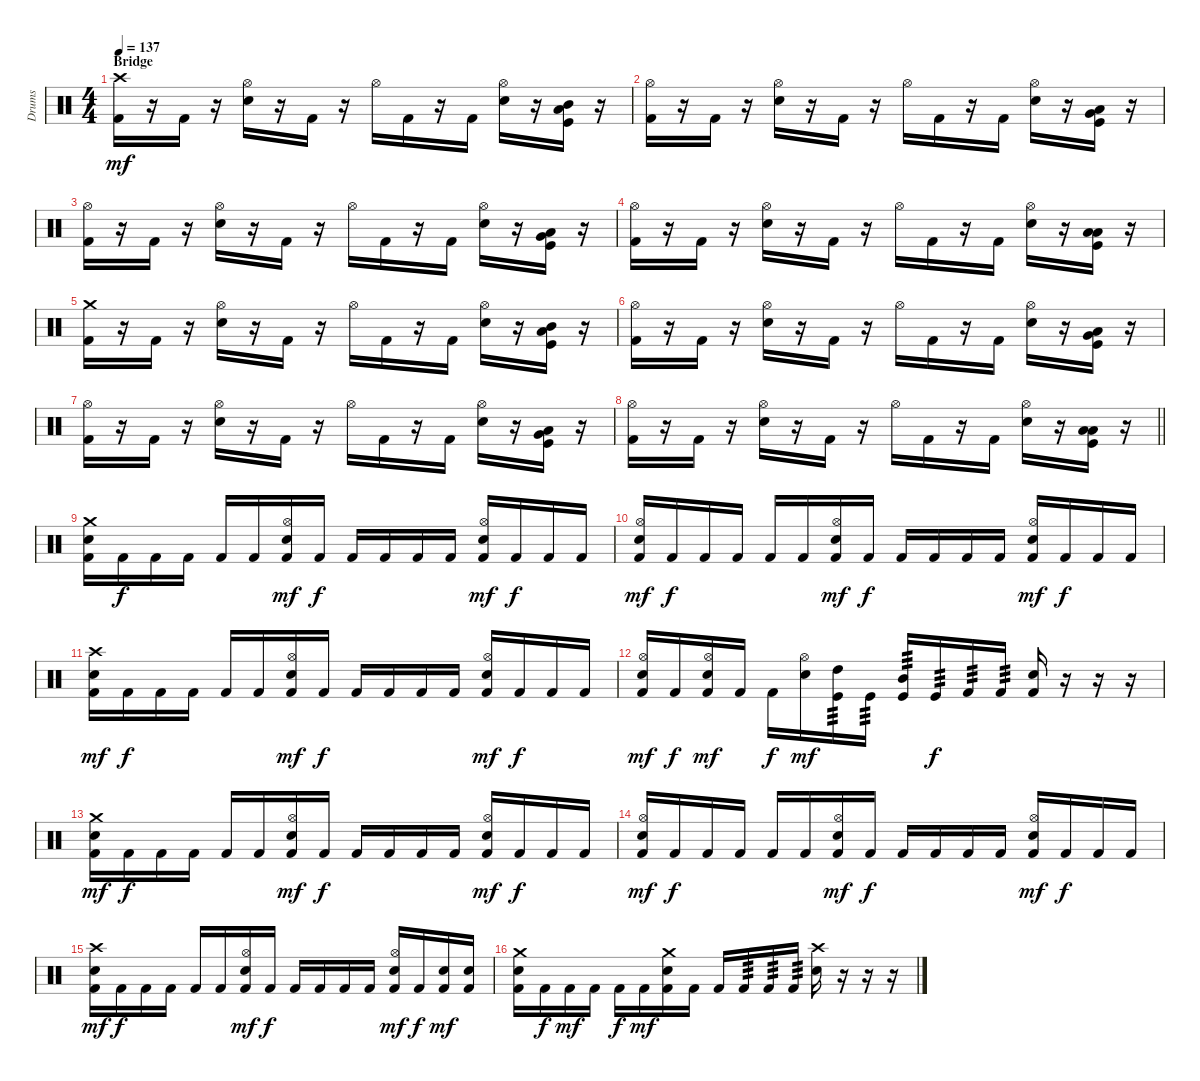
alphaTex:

\track ("Drums" "Drums") {instrument percussion}
\staff {score}
\articulation defaults
\ts (4 4)
\section ("" "Bridge")
\tempo 137
\clef neutral
\ks c
("Crash high (hit)" "Kick (hit) 2").16{dy mf} r.16 "Kick (hit) 2".16 r.16 ("Hi-Hat (open)" "Electric Snare (hit)").16 r.16 "Kick (hit) 2".16 r.16 "Hi-Hat (open)".16 "Kick (hit) 2".16 r.16 "Kick (hit) 2".16 ("Hi-Hat (open)" "Electric Snare (hit)").16 r.16 ("Mid Tom (hit)" "Low Tom (hit)" "Kick (hit)").16 r.16 |
("Hi-Hat (open)" "Kick (hit) 2").16 r.16 "Kick (hit) 2".16 r.16 ("Hi-Hat (open)" "Electric Snare (hit)").16 r.16 "Kick (hit) 2".16 r.16 "Hi-Hat (open)".16 "Kick (hit) 2".16 r.16 "Kick (hit) 2".16 ("Hi-Hat (open)" "Electric Snare (hit)").16 r.16 ("Low Tom (hit)" "Very Low Tom (hit)" "Kick (hit)").16 r.16 |
("Hi-Hat (open)" "Kick (hit) 2").16 r.16 "Kick (hit) 2".16 r.16 ("Hi-Hat (open)" "Electric Snare (hit)").16 r.16 "Kick (hit) 2".16 r.16 "Hi-Hat (open)".16 "Kick (hit) 2".16 r.16 "Kick (hit) 2".16 ("Hi-Hat (open)" "Electric Snare (hit)").16 r.16 ("Very Low Tom (hit)" "Low Floor Tom (hit)" "Kick (hit)").16 r.16 |
("Hi-Hat (open)" "Kick (hit) 2").16 r.16 "Kick (hit) 2".16 r.16 ("Hi-Hat (open)" "Electric Snare (hit)").16 r.16 "Kick (hit) 2".16 r.16 "Hi-Hat (open)".16 "Kick (hit) 2".16 r.16 "Kick (hit) 2".16 ("Hi-Hat (open)" "Electric Snare (hit)").16 r.16 ("Low Floor Tom (hit)" "Low Floor Tom (hit)" "Kick (hit)").16 r.16 |
("Crash medium (hit)" "Kick (hit) 2").16 r.16 "Kick (hit) 2".16 r.16 ("Hi-Hat (open)" "Electric Snare (hit)").16 r.16 "Kick (hit) 2".16 r.16 "Hi-Hat (open)".16 "Kick (hit) 2".16 r.16 "Kick (hit) 2".16 ("Hi-Hat (open)" "Electric Snare (hit)").16 r.16 ("Mid Tom (hit)" "Low Tom (hit)" "Kick (hit)").16 r.16 |
("Hi-Hat (open)" "Kick (hit) 2").16 r.16 "Kick (hit) 2".16 r.16 ("Hi-Hat (open)" "Electric Snare (hit)").16 r.16 "Kick (hit) 2".16 r.16 "Hi-Hat (open)".16 "Kick (hit) 2".16 r.16 "Kick (hit) 2".16 ("Hi-Hat (open)" "Electric Snare (hit)").16 r.16 ("Low Tom (hit)" "Very Low Tom (hit)" "Kick (hit)").16 r.16 |
("Hi-Hat (open)" "Kick (hit) 2").16 r.16 "Kick (hit) 2".16 r.16 ("Hi-Hat (open)" "Electric Snare (hit)").16 r.16 "Kick (hit) 2".16 r.16 "Hi-Hat (open)".16 "Kick (hit) 2".16 r.16 "Kick (hit) 2".16 ("Hi-Hat (open)" "Electric Snare (hit)").16 r.16 ("Very Low Tom (hit)" "Low Floor Tom (hit)" "Kick (hit)").16 r.16 |
\barLineRight lightlight
("Hi-Hat (open)" "Kick (hit) 2").16 r.16 "Kick (hit) 2".16 r.16 ("Hi-Hat (open)" "Electric Snare (hit)").16 r.16 "Kick (hit) 2".16 r.16 "Hi-Hat (open)".16 "Kick (hit) 2".16 r.16 "Kick (hit) 2".16 ("Hi-Hat (open)" "Electric Snare (hit)").16 r.16 ("Low Floor Tom (hit)" "Low Floor Tom (hit)" "Kick (hit)").16 r.16 |
("Crash medium (hit)" "Electric Snare (hit)" "Kick (hit) 2").16 "Kick (hit) 2".16{dy f} "Kick (hit) 2".16 "Kick (hit) 2".16 "Kick (hit) 2".16 "Kick (hit) 2".16 ("Hi-Hat (open)" "Electric Snare (hit)" "Kick (hit) 2").16{dy mf} "Kick (hit) 2".16{dy f} "Kick (hit) 2".16 "Kick (hit) 2".16 "Kick (hit) 2".16 "Kick (hit) 2".16 ("Hi-Hat (open)" "Electric Snare (hit)" "Kick (hit) 2").16{dy mf} "Kick (hit) 2".16{dy f} "Kick (hit) 2".16 "Kick (hit) 2".16 |
("Hi-Hat (open)" "Electric Snare (hit)" "Kick (hit) 2").16{dy mf} "Kick (hit) 2".16{dy f} "Kick (hit) 2".16 "Kick (hit) 2".16 "Kick (hit) 2".16 "Kick (hit) 2".16 ("Hi-Hat (open)" "Electric Snare (hit)" "Kick (hit) 2").16{dy mf} "Kick (hit) 2".16{dy f} "Kick (hit) 2".16 "Kick (hit) 2".16 "Kick (hit) 2".16 "Kick (hit) 2".16 ("Hi-Hat (open)" "Electric Snare (hit)" "Kick (hit) 2").16{dy mf} "Kick (hit) 2".16{dy f} "Kick (hit) 2".16 "Kick (hit) 2".16 |
("Crash high (hit)" "Electric Snare (hit)" "Kick (hit) 2").16{dy mf} "Kick (hit) 2".16{dy f} "Kick (hit) 2".16 "Kick (hit) 2".16 "Kick (hit) 2".16 "Kick (hit) 2".16 ("Hi-Hat (open)" "Electric Snare (hit)" "Kick (hit) 2").16{dy mf} "Kick (hit) 2".16{dy f} "Kick (hit) 2".16 "Kick (hit) 2".16 "Kick (hit) 2".16 "Kick (hit) 2".16 ("Hi-Hat (open)" "Electric Snare (hit)" "Kick (hit) 2").16{dy mf} "Kick (hit) 2".16{dy f} "Kick (hit) 2".16 "Kick (hit) 2".16 |
("Hi-Hat (open)" "Electric Snare (hit)" "Kick (hit) 2").16{dy mf} "Kick (hit) 2".16{dy f} ("Hi-Hat (open)" "Electric Snare (hit)" "Kick (hit) 2").16{dy mf} "Kick (hit) 2".16 "Kick (hit) 2".16{dy f} ("Hi-Hat (open)" "Electric Snare (hit)").16{dy mf} ("High Tom (hit)" "Kick (hit)").16{tp 3} "Kick (hit)".16{tp 3} ("Mid Tom (hit)" "Kick (hit)").16{tp 3} "Kick (hit)".16{tp 3 dy f} "Kick (hit) 2".16{tp 3} "Kick (hit) 2".16{tp 3} ("Electric Snare (hit)" "Kick (hit) 2").16 r.16 r.16 r.16 |
("Crash medium (hit)" "Electric Snare (hit)" "Kick (hit) 2").16{dy mf} "Kick (hit) 2".16{dy f} "Kick (hit) 2".16 "Kick (hit) 2".16 "Kick (hit) 2".16 "Kick (hit) 2".16 ("Hi-Hat (open)" "Electric Snare (hit)" "Kick (hit) 2").16{dy mf} "Kick (hit) 2".16{dy f} "Kick (hit) 2".16 "Kick (hit) 2".16 "Kick (hit) 2".16 "Kick (hit) 2".16 ("Hi-Hat (open)" "Electric Snare (hit)" "Kick (hit) 2").16{dy mf} "Kick (hit) 2".16{dy f} "Kick (hit) 2".16 "Kick (hit) 2".16 |
("Hi-Hat (open)" "Electric Snare (hit)" "Kick (hit) 2").16{dy mf} "Kick (hit) 2".16{dy f} "Kick (hit) 2".16 "Kick (hit) 2".16 "Kick (hit) 2".16 "Kick (hit) 2".16 ("Hi-Hat (open)" "Electric Snare (hit)" "Kick (hit) 2").16{dy mf} "Kick (hit) 2".16{dy f} "Kick (hit) 2".16 "Kick (hit) 2".16 "Kick (hit) 2".16 "Kick (hit) 2".16 ("Hi-Hat (open)" "Electric Snare (hit)" "Kick (hit) 2").16{dy mf} "Kick (hit) 2".16{dy f} "Kick (hit) 2".16 "Kick (hit) 2".16 |
("Crash high (hit)" "Electric Snare (hit)" "Kick (hit) 2").16{dy mf} "Kick (hit) 2".16{dy f} "Kick (hit) 2".16 "Kick (hit) 2".16 "Kick (hit) 2".16 "Kick (hit) 2".16 ("Hi-Hat (open)" "Electric Snare (hit)" "Kick (hit) 2").16{dy mf} "Kick (hit) 2".16{dy f} "Kick (hit) 2".16 "Kick (hit) 2".16 "Kick (hit) 2".16 "Kick (hit) 2".16 ("Hi-Hat (open)" "Electric Snare (hit)" "Kick (hit) 2").16{dy mf} "Kick (hit) 2".16{dy f} ("Electric Snare (hit)" "Kick (hit) 2").16{dy mf} ("Electric Snare (hit)" "Kick (hit) 2").16 |
("Crash medium (hit)" "Electric Snare (hit)" "Kick (hit) 2").16 "Kick (hit) 2".16{dy f} "Kick (hit) 2".16{dy mf} "Kick (hit) 2".16 "Kick (hit) 2".16{dy f} "Kick (hit) 2".16{dy mf} ("Crash medium (hit)" "Electric Snare (hit)" "Kick (hit) 2").16 "Kick (hit) 2".16 "Kick (hit) 2".16 "Kick (hit) 2".16{tp 3} "Kick (hit) 2".16{tp 3} "Kick (hit) 2".16{tp 3} ("Crash high (hit)" "Electric Snare (hit)").16 r.16 r.16 r.16
